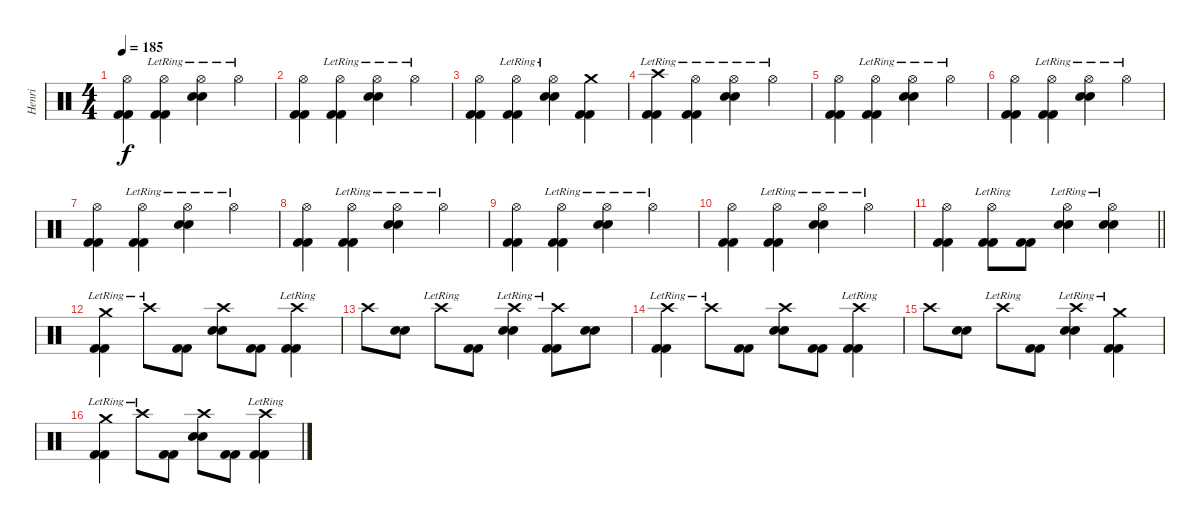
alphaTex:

\track ("Henri" "Henri") {instrument percussion}
\staff {score}
\articulation defaults
\ts (4 4)
\tempo 185
\clef neutral
\ks c
("Hi-Hat (open)" "Kick (hit) 2" "Kick (hit) 2").4{dy f} ("Hi-Hat (open)"{lr} "Kick (hit) 2" "Kick (hit) 2").4 ("Hi-Hat (open)"{lr} "Snare (hit) 2" "Snare (hit) 2").4 "Hi-Hat (open)"{lr}.4 |
("Hi-Hat (open)" "Kick (hit) 2" "Kick (hit) 2").4 ("Hi-Hat (open)"{lr} "Kick (hit) 2" "Kick (hit) 2").4 ("Hi-Hat (open)"{lr} "Snare (hit) 2" "Snare (hit) 2").4 "Hi-Hat (open)"{lr}.4 |
("Hi-Hat (open)" "Kick (hit) 2" "Kick (hit) 2").4 ("Hi-Hat (open)"{lr} "Kick (hit) 2" "Kick (hit) 2").4 ("Hi-Hat (open)"{lr} "Snare (hit) 2" "Snare (hit) 2").4 ("Crash medium (hit)" "Kick (hit) 2" "Kick (hit) 2").4 |
("Crash high (hit)"{lr} "Kick (hit) 2" "Kick (hit) 2").4 ("Hi-Hat (open)"{lr} "Kick (hit) 2" "Kick (hit) 2").4 ("Hi-Hat (open)"{lr} "Snare (hit) 2" "Snare (hit) 2").4 "Hi-Hat (open)"{lr}.4 |
("Hi-Hat (open)" "Kick (hit) 2" "Kick (hit) 2").4 ("Hi-Hat (open)"{lr} "Kick (hit) 2" "Kick (hit) 2").4 ("Hi-Hat (open)"{lr} "Snare (hit) 2" "Snare (hit) 2").4 "Hi-Hat (open)"{lr}.4 |
("Hi-Hat (open)" "Kick (hit) 2" "Kick (hit) 2").4 ("Hi-Hat (open)"{lr} "Kick (hit) 2" "Kick (hit) 2").4 ("Hi-Hat (open)"{lr} "Snare (hit) 2" "Snare (hit) 2").4 "Hi-Hat (open)"{lr}.4 |
("Hi-Hat (open)" "Kick (hit) 2" "Kick (hit) 2").4 ("Hi-Hat (open)"{lr} "Kick (hit) 2" "Kick (hit) 2").4 ("Hi-Hat (open)"{lr} "Snare (hit) 2" "Snare (hit) 2").4 "Hi-Hat (open)"{lr}.4 |
("Hi-Hat (open)" "Kick (hit) 2" "Kick (hit) 2").4 ("Hi-Hat (open)"{lr} "Kick (hit) 2" "Kick (hit) 2").4 ("Hi-Hat (open)"{lr} "Snare (hit) 2" "Snare (hit) 2").4 "Hi-Hat (open)"{lr}.4 |
("Hi-Hat (open)" "Kick (hit) 2" "Kick (hit) 2").4 ("Hi-Hat (open)"{lr} "Kick (hit) 2" "Kick (hit) 2").4 ("Hi-Hat (open)"{lr} "Snare (hit) 2" "Snare (hit) 2").4 "Hi-Hat (open)"{lr}.4 |
("Hi-Hat (open)" "Kick (hit) 2" "Kick (hit) 2").4 ("Hi-Hat (open)"{lr} "Kick (hit) 2" "Kick (hit) 2").4 ("Hi-Hat (open)"{lr} "Snare (hit) 2" "Snare (hit) 2").4 "Hi-Hat (open)"{lr}.4 |
\barLineRight lightlight
("Hi-Hat (open)" "Kick (hit) 2" "Kick (hit) 2").4 ("Hi-Hat (open)"{lr} "Kick (hit) 2" "Kick (hit) 2").8 ("Kick (hit) 2" "Kick (hit) 2").8 ("Hi-Hat (open)"{lr} "Snare (hit) 2" "Snare (hit) 2").4 ("Hi-Hat (open)"{lr} "Snare (hit) 2" "Snare (hit) 2").4 |
("Crash medium (hit)"{lr} "Kick (hit) 2" "Kick (hit) 2").4 "Crash high (hit)"{lr}.8 ("Kick (hit) 2" "Kick (hit) 2").8 ("Crash high (hit)" "Snare (hit) 2" "Snare (hit) 2").8 ("Kick (hit) 2" "Kick (hit) 2").8 ("Crash high (hit)"{lr} "Kick (hit) 2" "Kick (hit) 2").4 |
"Crash high (hit)".8 ("Snare (hit) 2" "Snare (hit) 2").8 "Crash high (hit)"{lr}.8 ("Kick (hit) 2" "Kick (hit) 2").8 ("Crash high (hit)"{lr} "Snare (hit) 2" "Snare (hit) 2").4 ("Crash high (hit)"{lr} "Kick (hit) 2" "Kick (hit) 2").8 ("Snare (hit) 2" "Snare (hit) 2").8 |
("Crash high (hit)"{lr} "Kick (hit) 2" "Kick (hit) 2").4 "Crash high (hit)"{lr}.8 ("Kick (hit) 2" "Kick (hit) 2").8 ("Crash high (hit)" "Snare (hit) 2" "Snare (hit) 2").8 ("Kick (hit) 2" "Kick (hit) 2").8 ("Crash high (hit)"{lr} "Kick (hit) 2" "Kick (hit) 2").4 |
"Crash high (hit)".8 ("Snare (hit) 2" "Snare (hit) 2").8 "Crash high (hit)"{lr}.8 ("Kick (hit) 2" "Kick (hit) 2").8 ("Crash high (hit)"{lr} "Snare (hit) 2" "Snare (hit) 2").4 ("Crash medium (hit)"{lr} "Kick (hit) 2" "Kick (hit) 2").4 |
("Crash medium (hit)"{lr} "Kick (hit) 2" "Kick (hit) 2").4 "Crash high (hit)"{lr}.8 ("Kick (hit) 2" "Kick (hit) 2").8 ("Crash high (hit)" "Snare (hit) 2" "Snare (hit) 2").8 ("Kick (hit) 2" "Kick (hit) 2").8 ("Crash high (hit)"{lr} "Kick (hit) 2" "Kick (hit) 2").4
